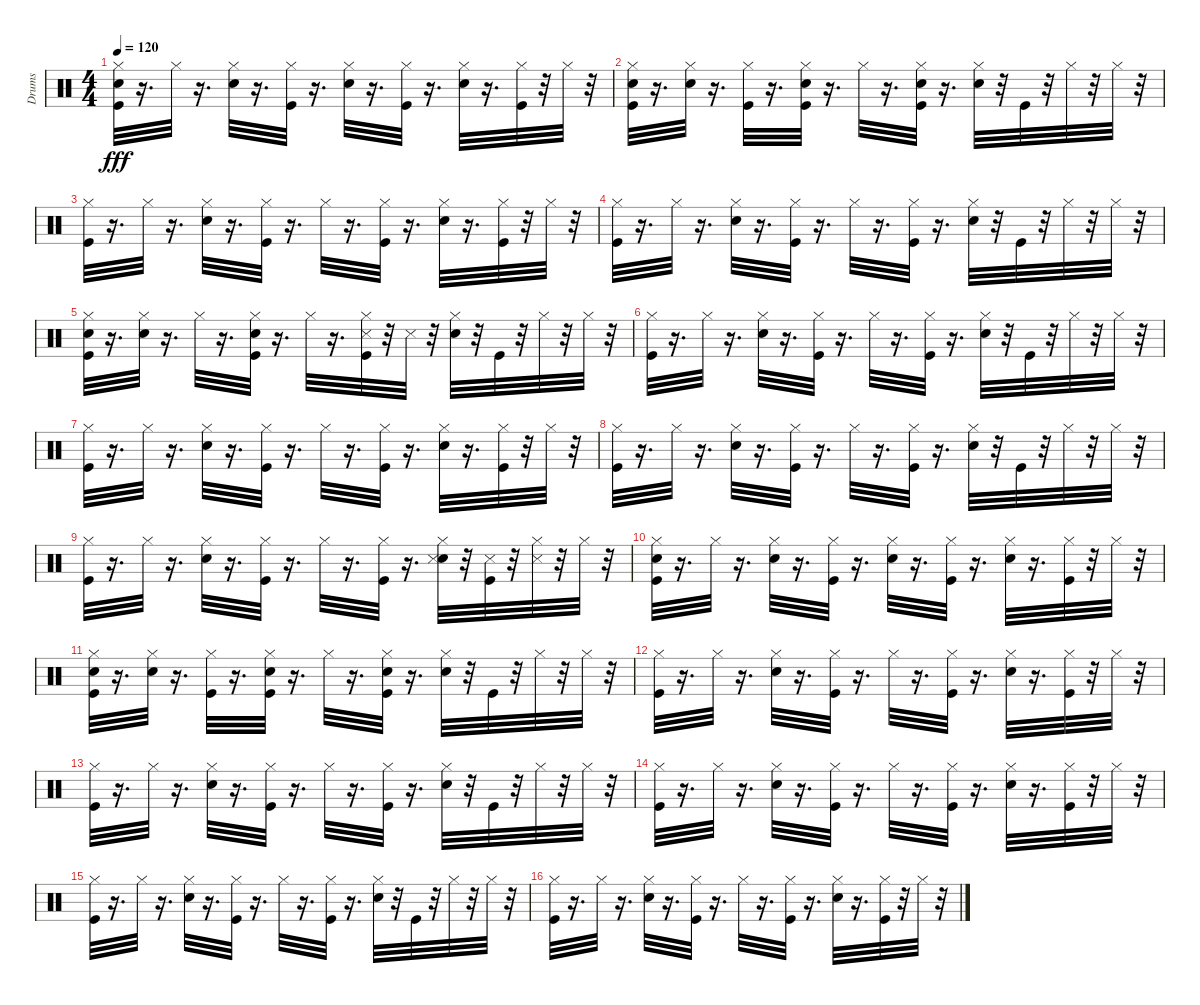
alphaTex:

\track ("Drums" "Drums") {solo instrument percussion}
\staff {score}
\articulation defaults
\ts (4 4)
\tempo 120
\clef neutral
\ks c
("Kick (hit)" "Snare (hit) 2" "Hi-Hat (closed)").32{dy fff} r.16{d} "Hi-Hat (closed)".32 r.16{d} ("Snare (hit) 2" "Hi-Hat (closed)").32 r.16{d} ("Kick (hit)" "Hi-Hat (closed)").32 r.16{d} ("Snare (hit) 2" "Hi-Hat (closed)").32 r.16{d} ("Kick (hit)" "Hi-Hat (closed)").32 r.16{d} ("Snare (hit) 2" "Hi-Hat (closed)").32 r.16{d} ("Kick (hit)" "Hi-Hat (closed)").32 r.32 "Hi-Hat (closed)".32 r.32 |
("Kick (hit)" "Snare (hit) 2" "Hi-Hat (closed)").32 r.16{d} ("Snare (hit) 2" "Hi-Hat (closed)").32 r.16{d} ("Kick (hit)" "Hi-Hat (closed)").32 r.16{d} ("Kick (hit)" "Snare (hit) 2" "Hi-Hat (closed)").32 r.16{d} "Hi-Hat (closed)".32 r.16{d} ("Kick (hit)" "Snare (hit) 2" "Hi-Hat (closed)").32 r.16{d} ("Snare (hit) 2" "Hi-Hat (closed)").32 r.32 "Kick (hit)".32 r.32 "Hi-Hat (closed)".32 r.32 "Hi-Hat (closed)".32 r.32 |
("Kick (hit)" "Hi-Hat (closed)").32 r.16{d} "Hi-Hat (closed)".32 r.16{d} ("Snare (hit) 2" "Hi-Hat (closed)").32 r.16{d} ("Kick (hit)" "Hi-Hat (closed)").32 r.16{d} "Hi-Hat (closed)".32 r.16{d} ("Kick (hit)" "Hi-Hat (closed)").32 r.16{d} ("Snare (hit) 2" "Hi-Hat (closed)").32 r.16{d} ("Kick (hit)" "Hi-Hat (closed)").32 r.32 "Hi-Hat (closed)".32 r.32 |
("Kick (hit)" "Hi-Hat (closed)").32 r.16{d} "Hi-Hat (closed)".32 r.16{d} ("Snare (hit) 2" "Hi-Hat (closed)").32 r.16{d} ("Kick (hit)" "Hi-Hat (closed)").32 r.16{d} "Hi-Hat (closed)".32 r.16{d} ("Kick (hit)" "Hi-Hat (closed)").32 r.16{d} ("Snare (hit) 2" "Hi-Hat (closed)").32 r.32 "Kick (hit)".32 r.32 "Hi-Hat (closed)".32 r.32 "Hi-Hat (closed)".32 r.32 |
("Kick (hit)" "Snare (hit) 2" "Hi-Hat (closed)").32 r.16{d} ("Snare (hit) 2" "Hi-Hat (closed)").32 r.16{d} "Hi-Hat (closed)".32 r.16{d} ("Kick (hit)" "Snare (hit) 2" "Hi-Hat (closed)").32 r.16{d} "Hi-Hat (closed)".32 r.16{d} ("Kick (hit)" "Hi-Hat (closed)" "Snare (side stick) 3").32 r.32 "Snare (side stick) 3".32 r.32 ("Snare (hit) 2" "Hi-Hat (closed)").32 r.32 "Kick (hit)".32 r.32 "Hi-Hat (closed)".32 r.32 "Hi-Hat (closed)".32 r.32 |
("Kick (hit)" "Hi-Hat (closed)").32 r.16{d} "Hi-Hat (closed)".32 r.16{d} ("Snare (hit) 2" "Hi-Hat (closed)").32 r.16{d} ("Kick (hit)" "Hi-Hat (closed)").32 r.16{d} "Hi-Hat (closed)".32 r.16{d} ("Kick (hit)" "Hi-Hat (closed)").32 r.16{d} ("Snare (hit) 2" "Hi-Hat (closed)").32 r.32 "Kick (hit)".32 r.32 "Hi-Hat (closed)".32 r.32 "Hi-Hat (closed)".32 r.32 |
("Kick (hit)" "Hi-Hat (closed)").32 r.16{d} "Hi-Hat (closed)".32 r.16{d} ("Snare (hit) 2" "Hi-Hat (closed)").32 r.16{d} ("Kick (hit)" "Hi-Hat (closed)").32 r.16{d} "Hi-Hat (closed)".32 r.16{d} ("Kick (hit)" "Hi-Hat (closed)").32 r.16{d} ("Snare (hit) 2" "Hi-Hat (closed)").32 r.16{d} ("Kick (hit)" "Hi-Hat (closed)").32 r.32 "Hi-Hat (closed)".32 r.32 |
("Kick (hit)" "Hi-Hat (closed)").32 r.16{d} "Hi-Hat (closed)".32 r.16{d} ("Snare (hit) 2" "Hi-Hat (closed)").32 r.16{d} ("Kick (hit)" "Hi-Hat (closed)").32 r.16{d} "Hi-Hat (closed)".32 r.16{d} ("Kick (hit)" "Hi-Hat (closed)").32 r.16{d} ("Snare (hit) 2" "Hi-Hat (closed)").32 r.32 "Kick (hit)".32 r.32 "Hi-Hat (closed)".32 r.32 "Hi-Hat (closed)".32 r.32 |
("Kick (hit)" "Hi-Hat (closed)").32 r.16{d} "Hi-Hat (closed)".32 r.16{d} ("Snare (hit) 2" "Hi-Hat (closed)").32 r.16{d} ("Kick (hit)" "Hi-Hat (closed)").32 r.16{d} "Hi-Hat (closed)".32 r.16{d} ("Kick (hit)" "Hi-Hat (closed)").32 r.16{d} ("Snare (hit) 2" "Hi-Hat (closed)" "Snare (side stick) 3").32 r.32 ("Kick (hit)" "Snare (side stick) 3").32 r.32 ("Hi-Hat (closed)" "Snare (side stick) 3").32 r.32 "Hi-Hat (closed)".32 r.32 |
("Kick (hit)" "Snare (hit) 2" "Hi-Hat (closed)").32 r.16{d} "Hi-Hat (closed)".32 r.16{d} ("Snare (hit) 2" "Hi-Hat (closed)").32 r.16{d} ("Kick (hit)" "Hi-Hat (closed)").32 r.16{d} ("Snare (hit) 2" "Hi-Hat (closed)").32 r.16{d} ("Kick (hit)" "Hi-Hat (closed)").32 r.16{d} ("Snare (hit) 2" "Hi-Hat (closed)").32 r.16{d} ("Kick (hit)" "Hi-Hat (closed)").32 r.32 "Hi-Hat (closed)".32 r.32 |
("Kick (hit)" "Snare (hit) 2" "Hi-Hat (closed)").32 r.16{d} ("Snare (hit) 2" "Hi-Hat (closed)").32 r.16{d} ("Kick (hit)" "Hi-Hat (closed)").32 r.16{d} ("Kick (hit)" "Snare (hit) 2" "Hi-Hat (closed)").32 r.16{d} "Hi-Hat (closed)".32 r.16{d} ("Kick (hit)" "Snare (hit) 2" "Hi-Hat (closed)").32 r.16{d} ("Snare (hit) 2" "Hi-Hat (closed)").32 r.32 "Kick (hit)".32 r.32 "Hi-Hat (closed)".32 r.32 "Hi-Hat (closed)".32 r.32 |
("Kick (hit)" "Hi-Hat (closed)").32 r.16{d} "Hi-Hat (closed)".32 r.16{d} ("Snare (hit) 2" "Hi-Hat (closed)").32 r.16{d} ("Kick (hit)" "Hi-Hat (closed)").32 r.16{d} "Hi-Hat (closed)".32 r.16{d} ("Kick (hit)" "Hi-Hat (closed)").32 r.16{d} ("Snare (hit) 2" "Hi-Hat (closed)").32 r.16{d} ("Kick (hit)" "Hi-Hat (closed)").32 r.32 "Hi-Hat (closed)".32 r.32 |
("Kick (hit)" "Hi-Hat (closed)").32 r.16{d} "Hi-Hat (closed)".32 r.16{d} ("Snare (hit) 2" "Hi-Hat (closed)").32 r.16{d} ("Kick (hit)" "Hi-Hat (closed)").32 r.16{d} "Hi-Hat (closed)".32 r.16{d} ("Kick (hit)" "Hi-Hat (closed)").32 r.16{d} ("Snare (hit) 2" "Hi-Hat (closed)").32 r.32 "Kick (hit)".32 r.32 "Hi-Hat (closed)".32 r.32 "Hi-Hat (closed)".32 r.32 |
("Kick (hit)" "Hi-Hat (closed)").32 r.16{d} "Hi-Hat (closed)".32 r.16{d} ("Snare (hit) 2" "Hi-Hat (closed)").32 r.16{d} ("Kick (hit)" "Hi-Hat (closed)").32 r.16{d} "Hi-Hat (closed)".32 r.16{d} ("Kick (hit)" "Hi-Hat (closed)").32 r.16{d} ("Snare (hit) 2" "Hi-Hat (closed)").32 r.16{d} ("Kick (hit)" "Hi-Hat (closed)").32 r.32 "Hi-Hat (closed)".32 r.32 |
("Kick (hit)" "Hi-Hat (closed)").32 r.16{d} "Hi-Hat (closed)".32 r.16{d} ("Snare (hit) 2" "Hi-Hat (closed)").32 r.16{d} ("Kick (hit)" "Hi-Hat (closed)").32 r.16{d} "Hi-Hat (closed)".32 r.16{d} ("Kick (hit)" "Hi-Hat (closed)").32 r.16{d} ("Snare (hit) 2" "Hi-Hat (closed)").32 r.32 "Kick (hit)".32 r.32 "Hi-Hat (closed)".32 r.32 "Hi-Hat (closed)".32 r.32 |
("Kick (hit)" "Hi-Hat (closed)").32 r.16{d} "Hi-Hat (closed)".32 r.16{d} ("Snare (hit) 2" "Hi-Hat (closed)").32 r.16{d} ("Kick (hit)" "Hi-Hat (closed)").32 r.16{d} "Hi-Hat (closed)".32 r.16{d} ("Kick (hit)" "Hi-Hat (closed)").32 r.16{d} ("Snare (hit) 2" "Hi-Hat (closed)").32 r.16{d} ("Kick (hit)" "Hi-Hat (closed)").32 r.32 "Hi-Hat (closed)".32 r.32
